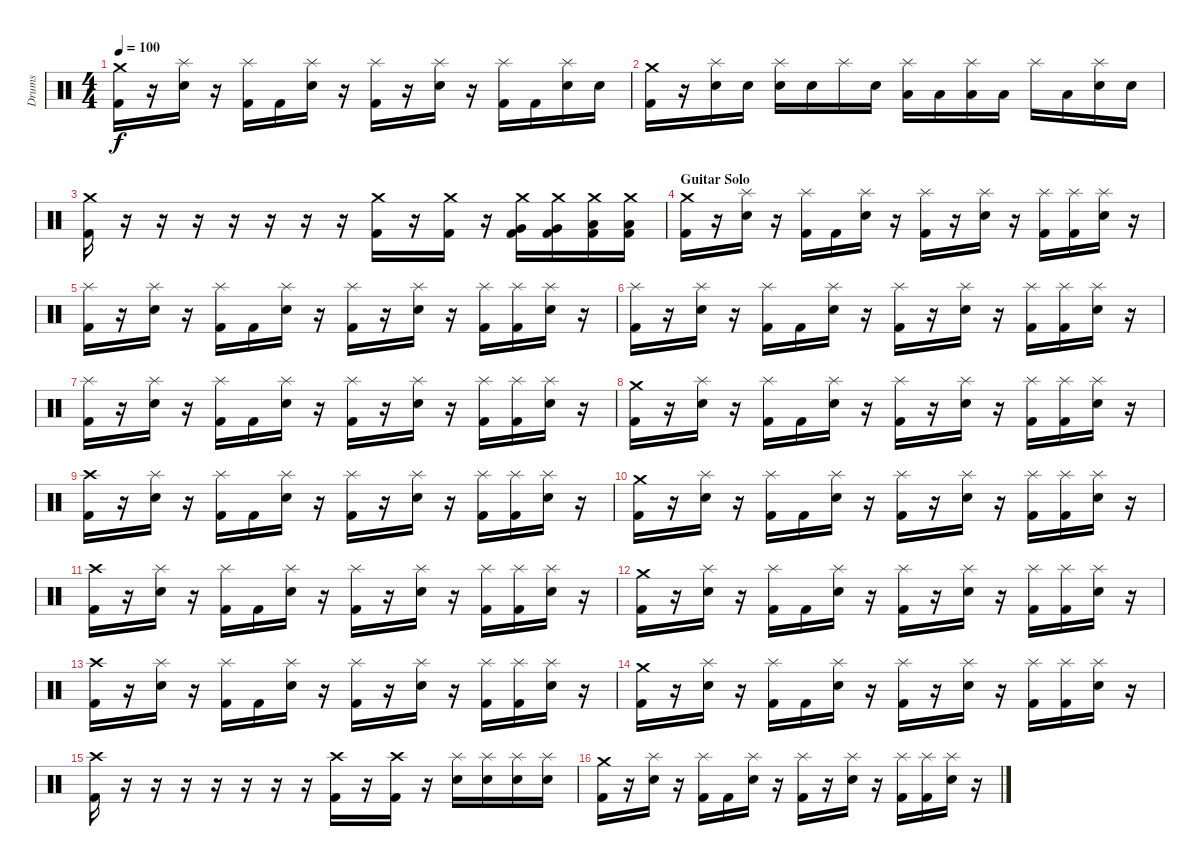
\track ("Drums" "Drums") {instrument percussion}
\staff {score}
\articulation defaults
\ts (4 4)
\tempo 100
\clef neutral
\ks c
("Crash medium (hit)" "Kick (hit) 2").16{dy f} r.16 ("Splash (hit)" "Snare (hit) 2").16 r.16 ("Splash (hit)" "Kick (hit) 2").16 "Kick (hit) 2".16 ("Splash (hit)" "Snare (hit) 2").16 r.16 ("Splash (hit)" "Kick (hit) 2").16 r.16 ("Splash (hit)" "Snare (hit) 2").16 r.16 ("Splash (hit)" "Kick (hit) 2").16 "Kick (hit) 2".16 ("Splash (hit)" "Snare (hit) 2").16 "Snare (hit) 2".16 |
("Crash medium (hit)" "Kick (hit) 2").16 r.16 ("Splash (hit)" "Snare (hit) 2").16 "Snare (hit) 2".16 ("Splash (hit)" "Snare (hit) 2").16 "Snare (hit) 2".16 "Splash (hit)".16 "Snare (hit) 2".16 ("Splash (hit)" "Low Tom (hit)").16 "Low Tom (hit)".16 ("Splash (hit)" "Low Tom (hit)").16 "Low Tom (hit)".16 "Splash (hit)".16 "Low Tom (hit)".16 ("Splash (hit)" "Snare (hit) 2").16 "Snare (hit) 2".16 |
("Crash medium (hit)" "Kick (hit) 2").16 r.16 r.16 r.16 r.16 r.16 r.16 r.16 ("Crash medium (hit)" "Kick (hit) 2").16 r.16 ("Crash medium (hit)" "Kick (hit) 2").16 r.16 ("Crash medium (hit)" "Very Low Tom (hit)" "Kick (hit) 2").16 ("Crash medium (hit)" "Very Low Tom (hit)" "Kick (hit) 2").16 ("Crash medium (hit)" "Low Tom (hit)" "Kick (hit) 2").16 ("Crash medium (hit)" "Low Tom (hit)" "Kick (hit) 2").16 |
\section ("" "Guitar Solo")
("Crash medium (hit)" "Kick (hit) 2").16 r.16 ("Splash (hit)" "Snare (hit) 2").16 r.16 ("Splash (hit)" "Kick (hit) 2").16 "Kick (hit) 2".16 ("Splash (hit)" "Snare (hit) 2").16 r.16 ("Splash (hit)" "Kick (hit) 2").16 r.16 ("Splash (hit)" "Snare (hit) 2").16 r.16 ("Splash (hit)" "Kick (hit) 2").16 ("Splash (hit)" "Kick (hit) 2").16 ("Splash (hit)" "Snare (hit) 2").16 r.16 |
("Splash (hit)" "Kick (hit) 2").16 r.16 ("Splash (hit)" "Snare (hit) 2").16 r.16 ("Splash (hit)" "Kick (hit) 2").16 "Kick (hit) 2".16 ("Splash (hit)" "Snare (hit) 2").16 r.16 ("Splash (hit)" "Kick (hit) 2").16 r.16 ("Splash (hit)" "Snare (hit) 2").16 r.16 ("Splash (hit)" "Kick (hit) 2").16 ("Splash (hit)" "Kick (hit) 2").16 ("Splash (hit)" "Snare (hit) 2").16 r.16 |
("Splash (hit)" "Kick (hit) 2").16 r.16 ("Splash (hit)" "Snare (hit) 2").16 r.16 ("Splash (hit)" "Kick (hit) 2").16 "Kick (hit) 2".16 ("Splash (hit)" "Snare (hit) 2").16 r.16 ("Splash (hit)" "Kick (hit) 2").16 r.16 ("Splash (hit)" "Snare (hit) 2").16 r.16 ("Splash (hit)" "Kick (hit) 2").16 ("Splash (hit)" "Kick (hit) 2").16 ("Splash (hit)" "Snare (hit) 2").16 r.16 |
("Splash (hit)" "Kick (hit) 2").16 r.16 ("Splash (hit)" "Snare (hit) 2").16 r.16 ("Splash (hit)" "Kick (hit) 2").16 "Kick (hit) 2".16 ("Splash (hit)" "Snare (hit) 2").16 r.16 ("Splash (hit)" "Kick (hit) 2").16 r.16 ("Splash (hit)" "Snare (hit) 2").16 r.16 ("Splash (hit)" "Kick (hit) 2").16 ("Splash (hit)" "Kick (hit) 2").16 ("Splash (hit)" "Snare (hit) 2").16 r.16 |
("Crash medium (hit)" "Kick (hit) 2").16 r.16 ("Splash (hit)" "Snare (hit) 2").16 r.16 ("Splash (hit)" "Kick (hit) 2").16 "Kick (hit) 2".16 ("Splash (hit)" "Snare (hit) 2").16 r.16 ("Splash (hit)" "Kick (hit) 2").16 r.16 ("Splash (hit)" "Snare (hit) 2").16 r.16 ("Splash (hit)" "Kick (hit) 2").16 ("Splash (hit)" "Kick (hit) 2").16 ("Splash (hit)" "Snare (hit) 2").16 r.16 |
("Crash high (hit)" "Kick (hit) 2").16 r.16 ("Splash (hit)" "Snare (hit) 2").16 r.16 ("Splash (hit)" "Kick (hit) 2").16 "Kick (hit) 2".16 ("Splash (hit)" "Snare (hit) 2").16 r.16 ("Splash (hit)" "Kick (hit) 2").16 r.16 ("Splash (hit)" "Snare (hit) 2").16 r.16 ("Splash (hit)" "Kick (hit) 2").16 ("Splash (hit)" "Kick (hit) 2").16 ("Splash (hit)" "Snare (hit) 2").16 r.16 |
("Crash medium (hit)" "Kick (hit) 2").16 r.16 ("Splash (hit)" "Snare (hit) 2").16 r.16 ("Splash (hit)" "Kick (hit) 2").16 "Kick (hit) 2".16 ("Splash (hit)" "Snare (hit) 2").16 r.16 ("Splash (hit)" "Kick (hit) 2").16 r.16 ("Splash (hit)" "Snare (hit) 2").16 r.16 ("Splash (hit)" "Kick (hit) 2").16 ("Splash (hit)" "Kick (hit) 2").16 ("Splash (hit)" "Snare (hit) 2").16 r.16 |
("Crash high (hit)" "Kick (hit) 2").16 r.16 ("Splash (hit)" "Snare (hit) 2").16 r.16 ("Splash (hit)" "Kick (hit) 2").16 "Kick (hit) 2".16 ("Splash (hit)" "Snare (hit) 2").16 r.16 ("Splash (hit)" "Kick (hit) 2").16 r.16 ("Splash (hit)" "Snare (hit) 2").16 r.16 ("Splash (hit)" "Kick (hit) 2").16 ("Splash (hit)" "Kick (hit) 2").16 ("Splash (hit)" "Snare (hit) 2").16 r.16 |
("Crash medium (hit)" "Kick (hit) 2").16 r.16 ("Splash (hit)" "Snare (hit) 2").16 r.16 ("Splash (hit)" "Kick (hit) 2").16 "Kick (hit) 2".16 ("Splash (hit)" "Snare (hit) 2").16 r.16 ("Splash (hit)" "Kick (hit) 2").16 r.16 ("Splash (hit)" "Snare (hit) 2").16 r.16 ("Splash (hit)" "Kick (hit) 2").16 ("Splash (hit)" "Kick (hit) 2").16 ("Splash (hit)" "Snare (hit) 2").16 r.16 |
("Crash high (hit)" "Kick (hit) 2").16 r.16 ("Splash (hit)" "Snare (hit) 2").16 r.16 ("Splash (hit)" "Kick (hit) 2").16 "Kick (hit) 2".16 ("Splash (hit)" "Snare (hit) 2").16 r.16 ("Splash (hit)" "Kick (hit) 2").16 r.16 ("Splash (hit)" "Snare (hit) 2").16 r.16 ("Splash (hit)" "Kick (hit) 2").16 ("Splash (hit)" "Kick (hit) 2").16 ("Splash (hit)" "Snare (hit) 2").16 r.16 |
("Crash medium (hit)" "Kick (hit) 2").16 r.16 ("Splash (hit)" "Snare (hit) 2").16 r.16 ("Splash (hit)" "Kick (hit) 2").16 "Kick (hit) 2".16 ("Splash (hit)" "Snare (hit) 2").16 r.16 ("Splash (hit)" "Kick (hit) 2").16 r.16 ("Splash (hit)" "Snare (hit) 2").16 r.16 ("Splash (hit)" "Kick (hit) 2").16 ("Splash (hit)" "Kick (hit) 2").16 ("Splash (hit)" "Snare (hit) 2").16 r.16 |
("Crash high (hit)" "Kick (hit) 2").16 r.16 r.16 r.16 r.16 r.16 r.16 r.16 ("Crash high (hit)" "Kick (hit) 2").16 r.16 ("Crash high (hit)" "Kick (hit) 2").16 r.16 ("Splash (hit)" "Snare (hit) 2").16 ("Splash (hit)" "Snare (hit) 2").16 ("Splash (hit)" "Snare (hit) 2").16 ("Splash (hit)" "Snare (hit) 2").16 |
("Crash medium (hit)" "Kick (hit) 2").16 r.16 ("Splash (hit)" "Snare (hit) 2").16 r.16 ("Splash (hit)" "Kick (hit) 2").16 "Kick (hit) 2".16 ("Splash (hit)" "Snare (hit) 2").16 r.16 ("Splash (hit)" "Kick (hit) 2").16 r.16 ("Splash (hit)" "Snare (hit) 2").16 r.16 ("Splash (hit)" "Kick (hit) 2").16 ("Splash (hit)" "Kick (hit) 2").16 ("Splash (hit)" "Snare (hit) 2").16 r.16
